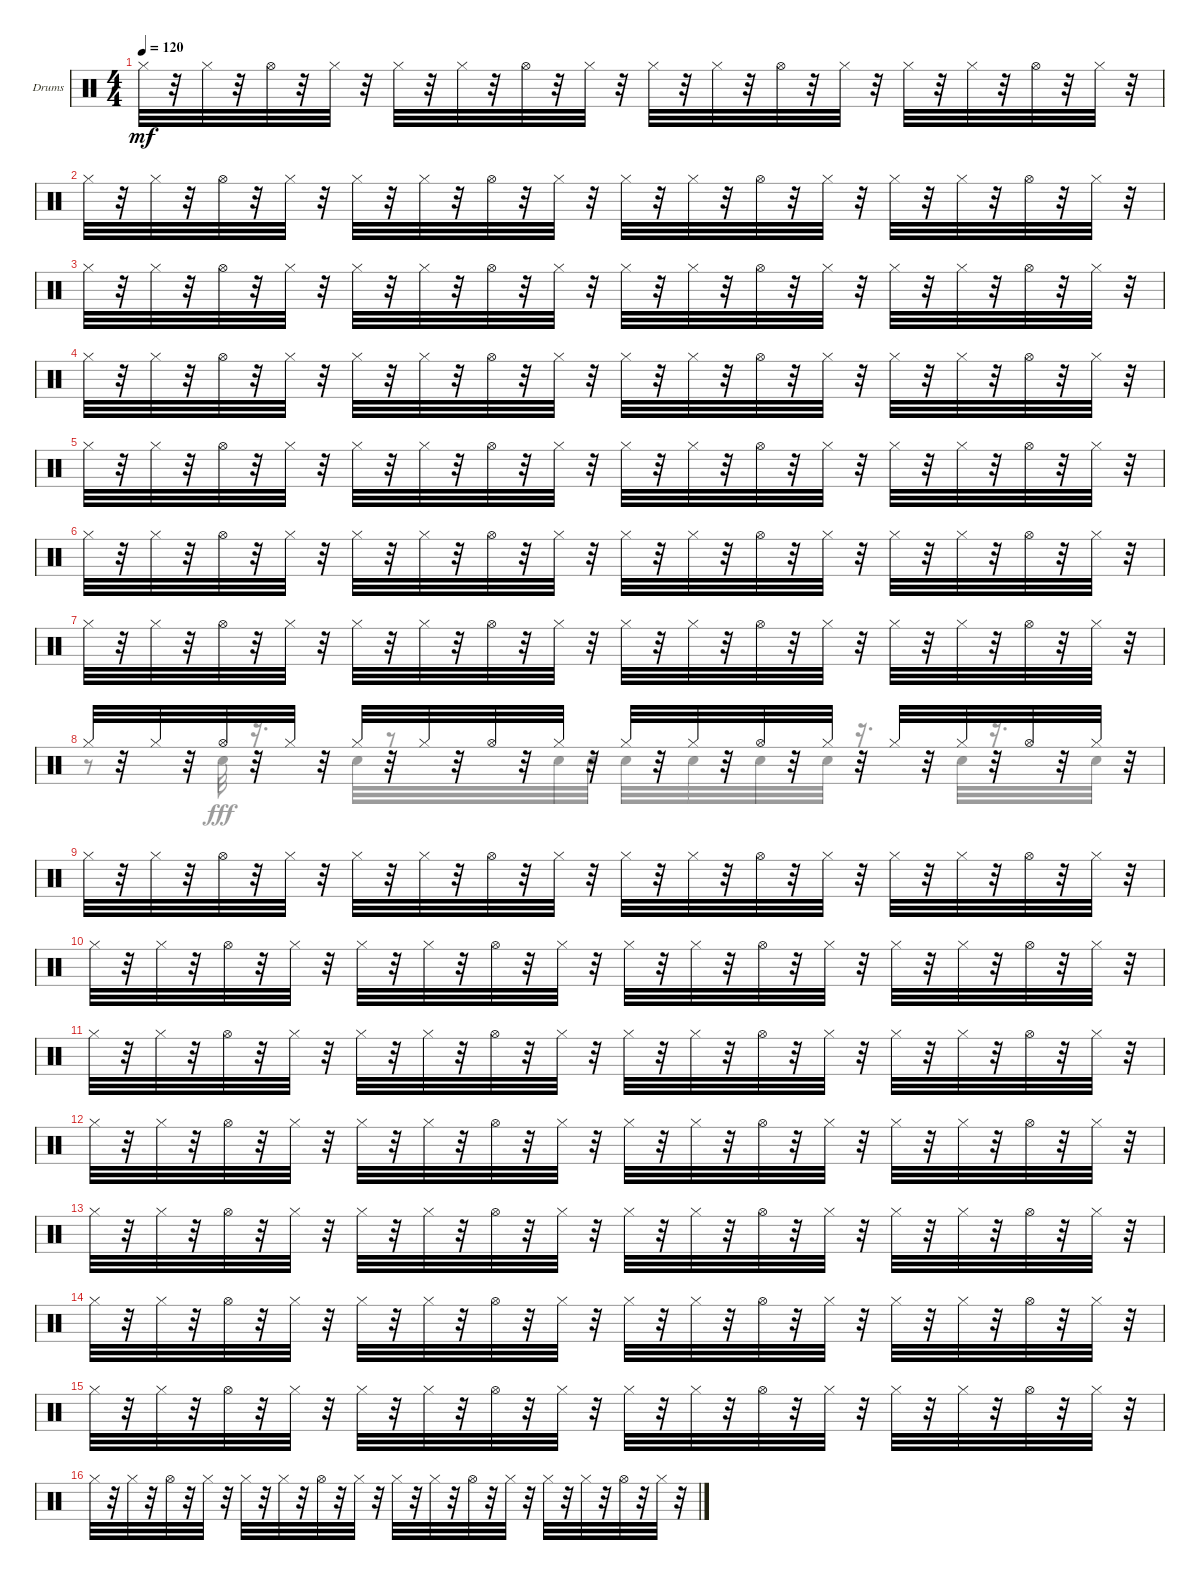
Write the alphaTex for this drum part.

\defaultSystemsLayout 4
\bracketExtendMode groupsimilarinstruments
\firstSystemTrackNameOrientation horizontal
\otherSystemsTrackNameOrientation horizontal
\track ("Drumkit" "Drums") {instrument percussion}
\staff {score}
\articulation defaults
\voice
\ts (4 4)
\tempo 120
\clef neutral
\ks c "Hi-Hat (closed)".32{dy mf}
r.32 "Hi-Hat (closed)".32 r.32 "Hi-Hat (open)".32 r.32 "Hi-Hat (closed)".32 r.32 "Hi-Hat (closed)".32 r.32 "Hi-Hat (closed)".32 r.32 "Hi-Hat (open)".32 r.32 "Hi-Hat (closed)".32 r.32 "Hi-Hat (closed)".32 r.32 "Hi-Hat (closed)".32 r.32 "Hi-Hat (open)".32 r.32 "Hi-Hat (closed)".32 r.32 "Hi-Hat (closed)".32 r.32 "Hi-Hat (closed)".32 r.32 "Hi-Hat (open)".32 r.32 "Hi-Hat (closed)".32 r.32 |
"Hi-Hat (closed)".32 r.32 "Hi-Hat (closed)".32 r.32 "Hi-Hat (open)".32 r.32 "Hi-Hat (closed)".32 r.32 "Hi-Hat (closed)".32 r.32 "Hi-Hat (closed)".32 r.32 "Hi-Hat (open)".32 r.32 "Hi-Hat (closed)".32 r.32 "Hi-Hat (closed)".32 r.32 "Hi-Hat (closed)".32 r.32 "Hi-Hat (open)".32 r.32 "Hi-Hat (closed)".32 r.32 "Hi-Hat (closed)".32 r.32 "Hi-Hat (closed)".32 r.32 "Hi-Hat (open)".32 r.32 "Hi-Hat (closed)".32 r.32 |
"Hi-Hat (closed)".32 r.32 "Hi-Hat (closed)".32 r.32 "Hi-Hat (open)".32 r.32 "Hi-Hat (closed)".32 r.32 "Hi-Hat (closed)".32 r.32 "Hi-Hat (closed)".32 r.32 "Hi-Hat (open)".32 r.32 "Hi-Hat (closed)".32 r.32 "Hi-Hat (closed)".32 r.32 "Hi-Hat (closed)".32 r.32 "Hi-Hat (open)".32 r.32 "Hi-Hat (closed)".32 r.32 "Hi-Hat (closed)".32 r.32 "Hi-Hat (closed)".32 r.32 "Hi-Hat (open)".32 r.32 "Hi-Hat (closed)".32 r.32 |
"Hi-Hat (closed)".32 r.32 "Hi-Hat (closed)".32 r.32 "Hi-Hat (open)".32 r.32 "Hi-Hat (closed)".32 r.32 "Hi-Hat (closed)".32 r.32 "Hi-Hat (closed)".32 r.32 "Hi-Hat (open)".32 r.32 "Hi-Hat (closed)".32 r.32 "Hi-Hat (closed)".32 r.32 "Hi-Hat (closed)".32 r.32 "Hi-Hat (open)".32 r.32 "Hi-Hat (closed)".32 r.32 "Hi-Hat (closed)".32 r.32 "Hi-Hat (closed)".32 r.32 "Hi-Hat (open)".32 r.32 "Hi-Hat (closed)".32 r.32 |
"Hi-Hat (closed)".32 r.32 "Hi-Hat (closed)".32 r.32 "Hi-Hat (open)".32 r.32 "Hi-Hat (closed)".32 r.32 "Hi-Hat (closed)".32 r.32 "Hi-Hat (closed)".32 r.32 "Hi-Hat (open)".32 r.32 "Hi-Hat (closed)".32 r.32 "Hi-Hat (closed)".32 r.32 "Hi-Hat (closed)".32 r.32 "Hi-Hat (open)".32 r.32 "Hi-Hat (closed)".32 r.32 "Hi-Hat (closed)".32 r.32 "Hi-Hat (closed)".32 r.32 "Hi-Hat (open)".32 r.32 "Hi-Hat (closed)".32 r.32 |
"Hi-Hat (closed)".32 r.32 "Hi-Hat (closed)".32 r.32 "Hi-Hat (open)".32 r.32 "Hi-Hat (closed)".32 r.32 "Hi-Hat (closed)".32 r.32 "Hi-Hat (closed)".32 r.32 "Hi-Hat (open)".32 r.32 "Hi-Hat (closed)".32 r.32 "Hi-Hat (closed)".32 r.32 "Hi-Hat (closed)".32 r.32 "Hi-Hat (open)".32 r.32 "Hi-Hat (closed)".32 r.32 "Hi-Hat (closed)".32 r.32 "Hi-Hat (closed)".32 r.32 "Hi-Hat (open)".32 r.32 "Hi-Hat (closed)".32 r.32 |
"Hi-Hat (closed)".32 r.32 "Hi-Hat (closed)".32 r.32 "Hi-Hat (open)".32 r.32 "Hi-Hat (closed)".32 r.32 "Hi-Hat (closed)".32 r.32 "Hi-Hat (closed)".32 r.32 "Hi-Hat (open)".32 r.32 "Hi-Hat (closed)".32 r.32 "Hi-Hat (closed)".32 r.32 "Hi-Hat (closed)".32 r.32 "Hi-Hat (open)".32 r.32 "Hi-Hat (closed)".32 r.32 "Hi-Hat (closed)".32 r.32 "Hi-Hat (closed)".32 r.32 "Hi-Hat (open)".32 r.32 "Hi-Hat (closed)".32 r.32 |
"Hi-Hat (closed)".32 r.32 "Hi-Hat (closed)".32 r.32 "Hi-Hat (open)".32 r.32 "Hi-Hat (closed)".32 r.32 "Hi-Hat (closed)".32 r.32 "Hi-Hat (closed)".32 r.32 "Hi-Hat (open)".32 r.32 "Hi-Hat (closed)".32 r.32 "Hi-Hat (closed)".32 r.32 "Hi-Hat (closed)".32 r.32 "Hi-Hat (open)".32 r.32 "Hi-Hat (closed)".32 r.32 "Hi-Hat (closed)".32 r.32 "Hi-Hat (closed)".32 r.32 "Hi-Hat (open)".32 r.32 "Hi-Hat (closed)".32 r.32 |
"Hi-Hat (closed)".32 r.32 "Hi-Hat (closed)".32 r.32 "Hi-Hat (open)".32 r.32 "Hi-Hat (closed)".32 r.32 "Hi-Hat (closed)".32 r.32 "Hi-Hat (closed)".32 r.32 "Hi-Hat (open)".32 r.32 "Hi-Hat (closed)".32 r.32 "Hi-Hat (closed)".32 r.32 "Hi-Hat (closed)".32 r.32 "Hi-Hat (open)".32 r.32 "Hi-Hat (closed)".32 r.32 "Hi-Hat (closed)".32 r.32 "Hi-Hat (closed)".32 r.32 "Hi-Hat (open)".32 r.32 "Hi-Hat (closed)".32 r.32 |
"Hi-Hat (closed)".32 r.32 "Hi-Hat (closed)".32 r.32 "Hi-Hat (open)".32 r.32 "Hi-Hat (closed)".32 r.32 "Hi-Hat (closed)".32 r.32 "Hi-Hat (closed)".32 r.32 "Hi-Hat (open)".32 r.32 "Hi-Hat (closed)".32 r.32 "Hi-Hat (closed)".32 r.32 "Hi-Hat (closed)".32 r.32 "Hi-Hat (open)".32 r.32 "Hi-Hat (closed)".32 r.32 "Hi-Hat (closed)".32 r.32 "Hi-Hat (closed)".32 r.32 "Hi-Hat (open)".32 r.32 "Hi-Hat (closed)".32 r.32 |
"Hi-Hat (closed)".32 r.32 "Hi-Hat (closed)".32 r.32 "Hi-Hat (open)".32 r.32 "Hi-Hat (closed)".32 r.32 "Hi-Hat (closed)".32 r.32 "Hi-Hat (closed)".32 r.32 "Hi-Hat (open)".32 r.32 "Hi-Hat (closed)".32 r.32 "Hi-Hat (closed)".32 r.32 "Hi-Hat (closed)".32 r.32 "Hi-Hat (open)".32 r.32 "Hi-Hat (closed)".32 r.32 "Hi-Hat (closed)".32 r.32 "Hi-Hat (closed)".32 r.32 "Hi-Hat (open)".32 r.32 "Hi-Hat (closed)".32 r.32 |
"Hi-Hat (closed)".32 r.32 "Hi-Hat (closed)".32 r.32 "Hi-Hat (open)".32 r.32 "Hi-Hat (closed)".32 r.32 "Hi-Hat (closed)".32 r.32 "Hi-Hat (closed)".32 r.32 "Hi-Hat (open)".32 r.32 "Hi-Hat (closed)".32 r.32 "Hi-Hat (closed)".32 r.32 "Hi-Hat (closed)".32 r.32 "Hi-Hat (open)".32 r.32 "Hi-Hat (closed)".32 r.32 "Hi-Hat (closed)".32 r.32 "Hi-Hat (closed)".32 r.32 "Hi-Hat (open)".32 r.32 "Hi-Hat (closed)".32 r.32 |
"Hi-Hat (closed)".32 r.32 "Hi-Hat (closed)".32 r.32 "Hi-Hat (open)".32 r.32 "Hi-Hat (closed)".32 r.32 "Hi-Hat (closed)".32 r.32 "Hi-Hat (closed)".32 r.32 "Hi-Hat (open)".32 r.32 "Hi-Hat (closed)".32 r.32 "Hi-Hat (closed)".32 r.32 "Hi-Hat (closed)".32 r.32 "Hi-Hat (open)".32 r.32 "Hi-Hat (closed)".32 r.32 "Hi-Hat (closed)".32 r.32 "Hi-Hat (closed)".32 r.32 "Hi-Hat (open)".32 r.32 "Hi-Hat (closed)".32 r.32 |
"Hi-Hat (closed)".32 r.32 "Hi-Hat (closed)".32 r.32 "Hi-Hat (open)".32 r.32 "Hi-Hat (closed)".32 r.32 "Hi-Hat (closed)".32 r.32 "Hi-Hat (closed)".32 r.32 "Hi-Hat (open)".32 r.32 "Hi-Hat (closed)".32 r.32 "Hi-Hat (closed)".32 r.32 "Hi-Hat (closed)".32 r.32 "Hi-Hat (open)".32 r.32 "Hi-Hat (closed)".32 r.32 "Hi-Hat (closed)".32 r.32 "Hi-Hat (closed)".32 r.32 "Hi-Hat (open)".32 r.32 "Hi-Hat (closed)".32 r.32 |
"Hi-Hat (closed)".32 r.32 "Hi-Hat (closed)".32 r.32 "Hi-Hat (open)".32 r.32 "Hi-Hat (closed)".32 r.32 "Hi-Hat (closed)".32 r.32 "Hi-Hat (closed)".32 r.32 "Hi-Hat (open)".32 r.32 "Hi-Hat (closed)".32 r.32 "Hi-Hat (closed)".32 r.32 "Hi-Hat (closed)".32 r.32 "Hi-Hat (open)".32 r.32 "Hi-Hat (closed)".32 r.32 "Hi-Hat (closed)".32 r.32 "Hi-Hat (closed)".32 r.32 "Hi-Hat (open)".32 r.32 "Hi-Hat (closed)".32 r.32 |
"Hi-Hat (closed)".32 r.32 "Hi-Hat (closed)".32 r.32 "Hi-Hat (open)".32 r.32 "Hi-Hat (closed)".32 r.32 "Hi-Hat (closed)".32 r.32 "Hi-Hat (closed)".32 r.32 "Hi-Hat (open)".32 r.32 "Hi-Hat (closed)".32 r.32 "Hi-Hat (closed)".32 r.32 "Hi-Hat (closed)".32 r.32 "Hi-Hat (open)".32 r.32 "Hi-Hat (closed)".32 r.32 "Hi-Hat (closed)".32 r.32 "Hi-Hat (closed)".32 r.32 "Hi-Hat (open)".32 r.32 "Hi-Hat (closed)".32 r.32
\voice
\clef neutral
\ottava regular
\simile none
\ks c
|
|
|
|
|
|
|
r.8 "Snare (hit) 2".32{dy fff} r.16{d} "Snare (hit) 2".32 r.8 r.32 "Snare (hit) 2".32 "Snare (hit) 2".32 "Snare (hit) 2".32 r.32 "Snare (hit) 2".32 r.32 "Snare (hit) 2".32 r.32 "Snare (hit) 2".32 r.16{d} "Snare (hit) 2".32 r.16{d} "Snare (hit) 2".32 r.32 |
|
|
|
|
|
|
|
